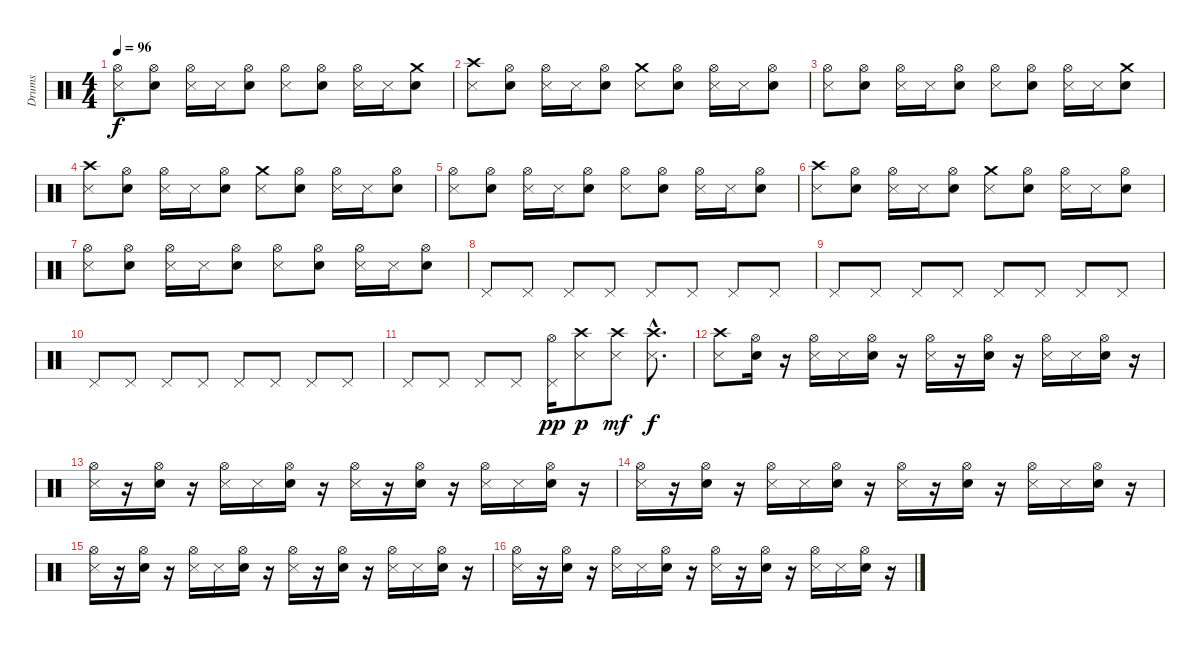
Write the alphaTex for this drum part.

\track ("Drums" "Drums") {instrument percussion}
\staff {score}
\articulation defaults
\ts (4 4)
\tempo 96
\clef neutral
\ks c
("Metronome (hit)" "Hi-Hat (open)").8{dy f} ("Hi-Hat (open)" "Electric Snare (hit)").8 ("Hi-Hat (open)" "Metronome (hit)").16 "Metronome (hit)".16 ("Hi-Hat (open)" "Electric Snare (hit)").8 ("Metronome (hit)" "Hi-Hat (open)").8 ("Hi-Hat (open)" "Electric Snare (hit)").8 ("Hi-Hat (open)" "Metronome (hit)").16 "Metronome (hit)".16 ("Crash medium (hit)" "Electric Snare (hit)").8 |
("Crash high (hit)" "Metronome (hit)").8 ("Electric Snare (hit)" "Hi-Hat (open)").8 ("Metronome (hit)" "Hi-Hat (open)").16 "Metronome (hit)".16 ("Electric Snare (hit)" "Hi-Hat (open)").8 ("Metronome (hit)" "Crash medium (hit)").8 ("Electric Snare (hit)" "Hi-Hat (open)").8 ("Metronome (hit)" "Hi-Hat (open)").16 "Metronome (hit)".16 ("Electric Snare (hit)" "Hi-Hat (open)").8 |
("Metronome (hit)" "Hi-Hat (open)").8 ("Electric Snare (hit)" "Hi-Hat (open)").8 ("Metronome (hit)" "Hi-Hat (open)").16 "Metronome (hit)".16 ("Hi-Hat (open)" "Electric Snare (hit)").8 ("Hi-Hat (open)" "Metronome (hit)").8 ("Hi-Hat (open)" "Electric Snare (hit)").8 ("Metronome (hit)" "Hi-Hat (open)").16 "Metronome (hit)".16 ("Electric Snare (hit)" "Crash medium (hit)").8 |
("Crash high (hit)" "Metronome (hit)").8 ("Electric Snare (hit)" "Hi-Hat (open)").8 ("Hi-Hat (open)" "Metronome (hit)").16 "Metronome (hit)".16 ("Hi-Hat (open)" "Electric Snare (hit)").8 ("Crash medium (hit)" "Metronome (hit)").8 ("Hi-Hat (open)" "Electric Snare (hit)").8 ("Metronome (hit)" "Hi-Hat (open)").16 "Metronome (hit)".16 ("Electric Snare (hit)" "Hi-Hat (open)").8 |
("Hi-Hat (open)" "Metronome (hit)").8 ("Electric Snare (hit)" "Hi-Hat (open)").8 ("Hi-Hat (open)" "Metronome (hit)").16 "Metronome (hit)".16 ("Hi-Hat (open)" "Electric Snare (hit)").8 ("Metronome (hit)" "Hi-Hat (open)").8 ("Hi-Hat (open)" "Electric Snare (hit)").8 ("Hi-Hat (open)" "Metronome (hit)").16 "Metronome (hit)".16 ("Electric Snare (hit)" "Hi-Hat (open)").8 |
("Metronome (hit)" "Crash high (hit)").8 ("Electric Snare (hit)" "Hi-Hat (open)").8 ("Metronome (hit)" "Hi-Hat (open)").16 "Metronome (hit)".16 ("Electric Snare (hit)" "Hi-Hat (open)").8 ("Crash medium (hit)" "Metronome (hit)").8 ("Electric Snare (hit)" "Hi-Hat (open)").8 ("Metronome (hit)" "Hi-Hat (open)").16 "Metronome (hit)".16 ("Hi-Hat (open)" "Electric Snare (hit)").8 |
("Hi-Hat (open)" "Metronome (hit)").8 ("Electric Snare (hit)" "Hi-Hat (open)").8 ("Hi-Hat (open)" "Metronome (hit)").16 "Metronome (hit)".16 ("Hi-Hat (open)" "Electric Snare (hit)").8 ("Metronome (hit)" "Hi-Hat (open)").8 ("Electric Snare (hit)" "Hi-Hat (open)").8 ("Hi-Hat (open)" "Metronome (hit)").16 "Metronome (hit)".16 ("Electric Snare (hit)" "Hi-Hat (open)").8 |
"Pedal Hi-Hat (hit)".8 "Pedal Hi-Hat (hit)".8 "Pedal Hi-Hat (hit)".8 "Pedal Hi-Hat (hit)".8 "Pedal Hi-Hat (hit)".8 "Pedal Hi-Hat (hit)".8 "Pedal Hi-Hat (hit)".8 "Pedal Hi-Hat (hit)".8 |
"Pedal Hi-Hat (hit)".8 "Pedal Hi-Hat (hit)".8 "Pedal Hi-Hat (hit)".8 "Pedal Hi-Hat (hit)".8 "Pedal Hi-Hat (hit)".8 "Pedal Hi-Hat (hit)".8 "Pedal Hi-Hat (hit)".8 "Pedal Hi-Hat (hit)".8 |
"Pedal Hi-Hat (hit)".8 "Pedal Hi-Hat (hit)".8 "Pedal Hi-Hat (hit)".8 "Pedal Hi-Hat (hit)".8 "Pedal Hi-Hat (hit)".8 "Pedal Hi-Hat (hit)".8 "Pedal Hi-Hat (hit)".8 "Pedal Hi-Hat (hit)".8 |
"Pedal Hi-Hat (hit)".8 "Pedal Hi-Hat (hit)".8 "Pedal Hi-Hat (hit)".8 "Pedal Hi-Hat (hit)".8 ("Pedal Hi-Hat (hit)" "Hi-Hat (open)").16{dy pp} ("Metronome (hit)" "Crash high (hit)").8{dy p} ("Crash high (hit)" "Metronome (hit)").8{dy mf} ("Metronome (hit)"{hac} "Crash high (hit)"{hac}).8{d dy f} |
("Crash high (hit)" "Metronome (hit)").8 ("Hi-Hat (open)" "Electric Snare (hit)").16 r.16 ("Hi-Hat (open)" "Metronome (hit)").16 "Metronome (hit)".16 ("Hi-Hat (open)" "Electric Snare (hit)").16 r.16 ("Metronome (hit)" "Hi-Hat (open)").16 r.16 ("Hi-Hat (open)" "Electric Snare (hit)").16 r.16 ("Metronome (hit)" "Hi-Hat (open)").16 "Metronome (hit)".16 ("Hi-Hat (open)" "Electric Snare (hit)").16 r.16 |
("Metronome (hit)" "Hi-Hat (open)").16 r.16 ("Hi-Hat (open)" "Electric Snare (hit)").16 r.16 ("Hi-Hat (open)" "Metronome (hit)").16 "Metronome (hit)".16 ("Hi-Hat (open)" "Electric Snare (hit)").16 r.16 ("Metronome (hit)" "Hi-Hat (open)").16 r.16 ("Electric Snare (hit)" "Hi-Hat (open)").16 r.16 ("Hi-Hat (open)" "Metronome (hit)").16 "Metronome (hit)".16 ("Hi-Hat (open)" "Electric Snare (hit)").16 r.16 |
("Metronome (hit)" "Hi-Hat (open)").16 r.16 ("Hi-Hat (open)" "Electric Snare (hit)").16 r.16 ("Metronome (hit)" "Hi-Hat (open)").16 "Metronome (hit)".16 ("Electric Snare (hit)" "Hi-Hat (open)").16 r.16 ("Hi-Hat (open)" "Metronome (hit)").16 r.16 ("Electric Snare (hit)" "Hi-Hat (open)").16 r.16 ("Metronome (hit)" "Hi-Hat (open)").16 "Metronome (hit)".16 ("Hi-Hat (open)" "Electric Snare (hit)").16 r.16 |
("Metronome (hit)" "Hi-Hat (open)").16 r.16 ("Hi-Hat (open)" "Electric Snare (hit)").16 r.16 ("Hi-Hat (open)" "Metronome (hit)").16 "Metronome (hit)".16 ("Electric Snare (hit)" "Hi-Hat (open)").16 r.16 ("Hi-Hat (open)" "Metronome (hit)").16 r.16 ("Electric Snare (hit)" "Hi-Hat (open)").16 r.16 ("Hi-Hat (open)" "Metronome (hit)").16 "Metronome (hit)".16 ("Hi-Hat (open)" "Electric Snare (hit)").16 r.16 |
("Hi-Hat (open)" "Metronome (hit)").16 r.16 ("Electric Snare (hit)" "Hi-Hat (open)").16 r.16 ("Hi-Hat (open)" "Metronome (hit)").16 "Metronome (hit)".16 ("Electric Snare (hit)" "Hi-Hat (open)").16 r.16 ("Hi-Hat (open)" "Metronome (hit)").16 r.16 ("Electric Snare (hit)" "Hi-Hat (open)").16 r.16 ("Metronome (hit)" "Hi-Hat (open)").16 "Metronome (hit)".16 ("Hi-Hat (open)" "Electric Snare (hit)").16 r.16
